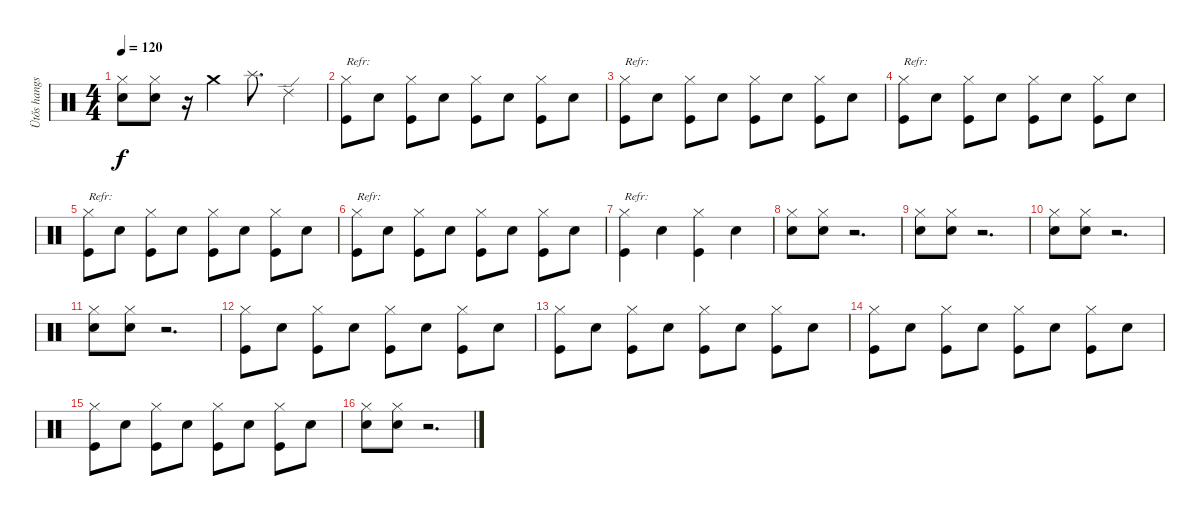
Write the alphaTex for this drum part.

\track ("Ütős hangszer" "Ütős hangs") {instrument percussion}
\staff {score}
\articulation defaults
\ts (4 4)
\tempo 120
\clef neutral
\ks c
("Hi-Hat (closed)" "Snare (hit) 2").8{dy f} ("Hi-Hat (closed)" "Snare (hit) 2").8 r.16 "Crash medium (hit)".4 "Splash (hit)".8{d} "Ride (edge) 2".4 |
("Hi-Hat (closed)" "Kick (hit)").8{txt "Refr:"} "Snare (hit) 2".8 ("Hi-Hat (closed)" "Kick (hit)").8 "Snare (hit) 2".8 ("Hi-Hat (closed)" "Kick (hit)").8 "Snare (hit) 2".8 ("Hi-Hat (closed)" "Kick (hit)").8 "Snare (hit) 2".8 |
("Hi-Hat (closed)" "Kick (hit)").8{txt "Refr:"} "Snare (hit) 2".8 ("Hi-Hat (closed)" "Kick (hit)").8 "Snare (hit) 2".8 ("Hi-Hat (closed)" "Kick (hit)").8 "Snare (hit) 2".8 ("Hi-Hat (closed)" "Kick (hit)").8 "Snare (hit) 2".8 |
("Hi-Hat (closed)" "Kick (hit)").8{txt "Refr:"} "Snare (hit) 2".8 ("Hi-Hat (closed)" "Kick (hit)").8 "Snare (hit) 2".8 ("Hi-Hat (closed)" "Kick (hit)").8 "Snare (hit) 2".8 ("Hi-Hat (closed)" "Kick (hit)").8 "Snare (hit) 2".8 |
("Hi-Hat (closed)" "Kick (hit)").8{txt "Refr:"} "Snare (hit) 2".8 ("Hi-Hat (closed)" "Kick (hit)").8 "Snare (hit) 2".8 ("Hi-Hat (closed)" "Kick (hit)").8 "Snare (hit) 2".8 ("Hi-Hat (closed)" "Kick (hit)").8 "Snare (hit) 2".8 |
("Hi-Hat (closed)" "Kick (hit)").8{txt "Refr:"} "Snare (hit) 2".8 ("Hi-Hat (closed)" "Kick (hit)").8 "Snare (hit) 2".8 ("Hi-Hat (closed)" "Kick (hit)").8 "Snare (hit) 2".8 ("Hi-Hat (closed)" "Kick (hit)").8 "Snare (hit) 2".8 |
("Hi-Hat (closed)" "Kick (hit)").4{txt "Refr:"} "Snare (hit) 2".4 ("Hi-Hat (closed)" "Kick (hit)").4 "Snare (hit) 2".4 |
("Hi-Hat (closed)" "Snare (hit) 2").8 ("Hi-Hat (closed)" "Snare (hit) 2").8 r.2{d} |
("Hi-Hat (closed)" "Snare (hit) 2").8 ("Hi-Hat (closed)" "Snare (hit) 2").8 r.2{d} |
("Hi-Hat (closed)" "Snare (hit) 2").8 ("Hi-Hat (closed)" "Snare (hit) 2").8 r.2{d} |
("Hi-Hat (closed)" "Snare (hit) 2").8 ("Hi-Hat (closed)" "Snare (hit) 2").8 r.2{d} |
("Hi-Hat (closed)" "Kick (hit)").8 "Snare (hit) 2".8 ("Hi-Hat (closed)" "Kick (hit)").8 "Snare (hit) 2".8 ("Hi-Hat (closed)" "Kick (hit)").8 "Snare (hit) 2".8 ("Hi-Hat (closed)" "Kick (hit)").8 "Snare (hit) 2".8 |
("Hi-Hat (closed)" "Kick (hit)").8 "Snare (hit) 2".8 ("Hi-Hat (closed)" "Kick (hit)").8 "Snare (hit) 2".8 ("Hi-Hat (closed)" "Kick (hit)").8 "Snare (hit) 2".8 ("Hi-Hat (closed)" "Kick (hit)").8 "Snare (hit) 2".8 |
("Hi-Hat (closed)" "Kick (hit)").8 "Snare (hit) 2".8 ("Hi-Hat (closed)" "Kick (hit)").8 "Snare (hit) 2".8 ("Hi-Hat (closed)" "Kick (hit)").8 "Snare (hit) 2".8 ("Hi-Hat (closed)" "Kick (hit)").8 "Snare (hit) 2".8 |
("Hi-Hat (closed)" "Kick (hit)").8 "Snare (hit) 2".8 ("Hi-Hat (closed)" "Kick (hit)").8 "Snare (hit) 2".8 ("Hi-Hat (closed)" "Kick (hit)").8 "Snare (hit) 2".8 ("Hi-Hat (closed)" "Kick (hit)").8 "Snare (hit) 2".8 |
("Hi-Hat (closed)" "Snare (hit) 2").8 ("Hi-Hat (closed)" "Snare (hit) 2").8 r.2{d}
